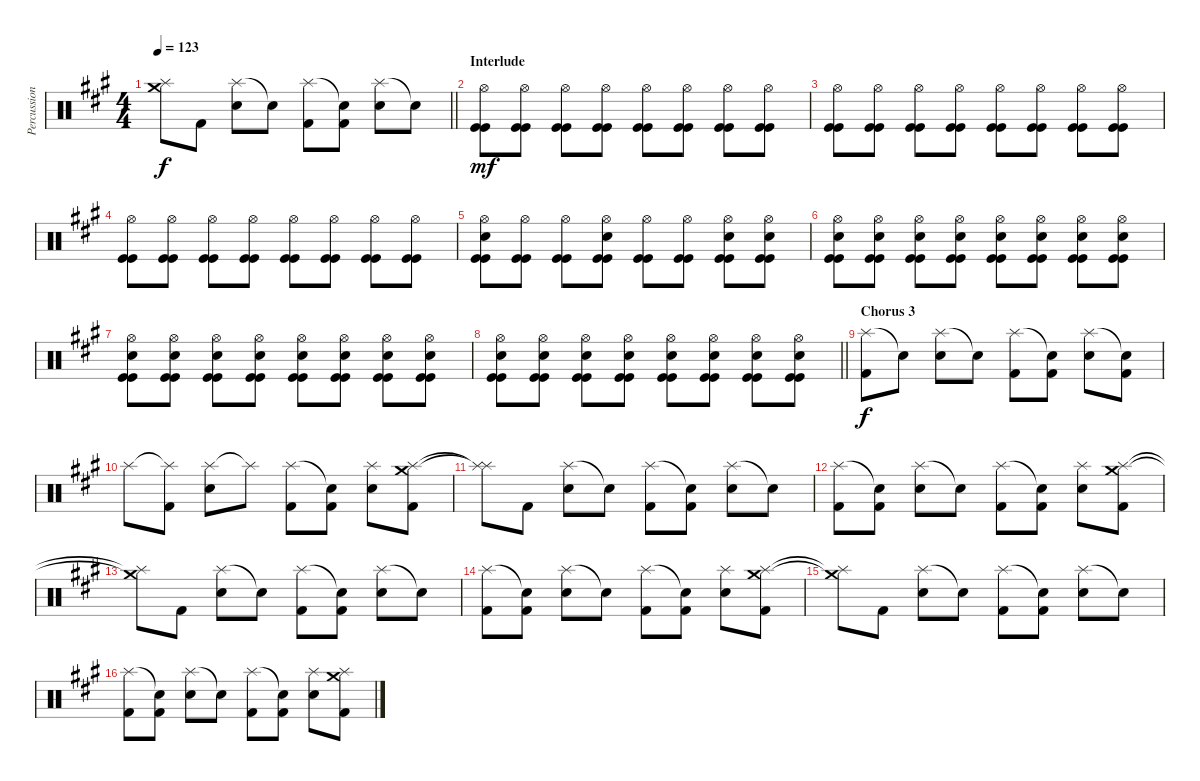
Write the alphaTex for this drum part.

\track ("Percussion" "Percussion") {instrument percussion}
\staff {score}
\articulation defaults
\ts (4 4)
\tempo 123
\clef neutral
\barLineRight lightlight
\ks a
("Crash medium (hit)"{t} "Splash (hit)"{t}).8{dy f} "Kick (hit) 2".8 ("Splash (hit)" "Electric Snare (hit)").8 "Snare (hit)"{t}.8 ("Splash (hit)" "Kick (hit) 2").8 ("Snare (hit)"{t} "Kick (hit) 2").8 ("Splash (hit)" "Electric Snare (hit)").8 "Snare (hit)"{t}.8 |
\section ("" "Interlude")
("Kick (hit)" "Kick (hit)" "Hi-Hat (open)").8{dy mf} ("Kick (hit)" "Kick (hit)" "Hi-Hat (open)").8 ("Kick (hit)" "Kick (hit)" "Hi-Hat (open)").8 ("Kick (hit)" "Kick (hit)" "Hi-Hat (open)").8 ("Kick (hit)" "Kick (hit)" "Hi-Hat (open)").8 ("Kick (hit)" "Kick (hit)" "Hi-Hat (open)").8 ("Kick (hit)" "Kick (hit)" "Hi-Hat (open)").8 ("Kick (hit)" "Kick (hit)" "Hi-Hat (open)").8 |
("Kick (hit)" "Kick (hit)" "Hi-Hat (open)").8 ("Kick (hit)" "Kick (hit)" "Hi-Hat (open)").8 ("Kick (hit)" "Kick (hit)" "Hi-Hat (open)").8 ("Kick (hit)" "Kick (hit)" "Hi-Hat (open)").8 ("Kick (hit)" "Kick (hit)" "Hi-Hat (open)").8 ("Kick (hit)" "Kick (hit)" "Hi-Hat (open)").8 ("Kick (hit)" "Kick (hit)" "Hi-Hat (open)").8 ("Kick (hit)" "Kick (hit)" "Hi-Hat (open)").8 |
("Kick (hit)" "Kick (hit)" "Hi-Hat (open)").8 ("Kick (hit)" "Kick (hit)" "Hi-Hat (open)").8 ("Kick (hit)" "Kick (hit)" "Hi-Hat (open)").8 ("Kick (hit)" "Kick (hit)" "Hi-Hat (open)").8 ("Kick (hit)" "Kick (hit)" "Hi-Hat (open)").8 ("Kick (hit)" "Kick (hit)" "Hi-Hat (open)").8 ("Kick (hit)" "Kick (hit)" "Hi-Hat (open)").8 ("Kick (hit)" "Kick (hit)" "Hi-Hat (open)").8 |
("Kick (hit)" "Kick (hit)" "Hi-Hat (open)" "Electric Snare (hit)").8 ("Kick (hit)" "Kick (hit)" "Hi-Hat (open)").8 ("Kick (hit)" "Kick (hit)" "Hi-Hat (open)").8 ("Kick (hit)" "Kick (hit)" "Hi-Hat (open)" "Electric Snare (hit)").8 ("Kick (hit)" "Kick (hit)" "Hi-Hat (open)").8 ("Kick (hit)" "Kick (hit)" "Hi-Hat (open)").8 ("Kick (hit)" "Kick (hit)" "Hi-Hat (open)" "Electric Snare (hit)").8 ("Kick (hit)" "Kick (hit)" "Hi-Hat (open)" "Electric Snare (hit)").8 |
("Kick (hit)" "Kick (hit)" "Hi-Hat (open)" "Electric Snare (hit)").8 ("Kick (hit)" "Kick (hit)" "Hi-Hat (open)" "Electric Snare (hit)").8 ("Kick (hit)" "Kick (hit)" "Hi-Hat (open)" "Electric Snare (hit)").8 ("Kick (hit)" "Kick (hit)" "Hi-Hat (open)" "Electric Snare (hit)").8 ("Kick (hit)" "Kick (hit)" "Hi-Hat (open)" "Electric Snare (hit)").8 ("Kick (hit)" "Kick (hit)" "Hi-Hat (open)" "Electric Snare (hit)").8 ("Kick (hit)" "Kick (hit)" "Hi-Hat (open)" "Electric Snare (hit)").8 ("Kick (hit)" "Kick (hit)" "Hi-Hat (open)" "Electric Snare (hit)").8 |
("Kick (hit)" "Kick (hit)" "Hi-Hat (open)" "Electric Snare (hit)").8 ("Kick (hit)" "Kick (hit)" "Hi-Hat (open)" "Electric Snare (hit)").8 ("Kick (hit)" "Kick (hit)" "Hi-Hat (open)" "Electric Snare (hit)").8 ("Kick (hit)" "Kick (hit)" "Hi-Hat (open)" "Electric Snare (hit)").8 ("Kick (hit)" "Kick (hit)" "Hi-Hat (open)" "Electric Snare (hit)").8 ("Kick (hit)" "Kick (hit)" "Hi-Hat (open)" "Electric Snare (hit)").8 ("Kick (hit)" "Kick (hit)" "Hi-Hat (open)" "Electric Snare (hit)").8 ("Kick (hit)" "Kick (hit)" "Hi-Hat (open)" "Electric Snare (hit)").8 |
\barLineRight lightlight
("Kick (hit)" "Kick (hit)" "Hi-Hat (open)" "Electric Snare (hit)").8 ("Kick (hit)" "Kick (hit)" "Hi-Hat (open)" "Electric Snare (hit)").8 ("Kick (hit)" "Kick (hit)" "Hi-Hat (open)" "Electric Snare (hit)").8 ("Kick (hit)" "Kick (hit)" "Hi-Hat (open)" "Electric Snare (hit)").8 ("Kick (hit)" "Kick (hit)" "Hi-Hat (open)" "Electric Snare (hit)").8 ("Kick (hit)" "Kick (hit)" "Hi-Hat (open)" "Electric Snare (hit)").8 ("Kick (hit)" "Kick (hit)" "Hi-Hat (open)" "Electric Snare (hit)").8 ("Kick (hit)" "Kick (hit)" "Hi-Hat (open)" "Electric Snare (hit)").8 |
\section ("" "Chorus 3")
("Splash (hit)" "Kick (hit) 2").8{dy f} "Snare (hit)"{t}.8 ("Splash (hit)" "Electric Snare (hit)").8 "Snare (hit)"{t}.8 ("Splash (hit)" "Kick (hit) 2").8 ("Snare (hit)"{t} "Kick (hit) 2").8 ("Splash (hit)" "Electric Snare (hit)").8 ("Snare (hit)"{t} "Kick (hit) 2").8 |
"Splash (hit)".8 ("Splash (hit)"{t} "Kick (hit) 2").8 ("Splash (hit)" "Electric Snare (hit)").8 "Splash (hit)"{t}.8 ("Splash (hit)" "Kick (hit) 2").8 ("Snare (hit)"{t} "Kick (hit) 2").8 ("Splash (hit)" "Electric Snare (hit)").8 ("Crash medium (hit)" "Splash (hit)" "Kick (hit) 2").8 |
("Splash (hit)"{t} "Splash (hit)"{t}).8 "Kick (hit) 2".8 ("Splash (hit)" "Electric Snare (hit)").8 "Snare (hit)"{t}.8 ("Splash (hit)" "Kick (hit) 2").8 ("Snare (hit)"{t} "Kick (hit) 2").8 ("Splash (hit)" "Electric Snare (hit)").8 "Snare (hit)"{t}.8 |
("Splash (hit)" "Kick (hit) 2").8 ("Snare (hit)"{t} "Kick (hit) 2").8 ("Splash (hit)" "Electric Snare (hit)").8 "Snare (hit)"{t}.8 ("Splash (hit)" "Kick (hit) 2").8 ("Snare (hit)"{t} "Kick (hit) 2").8 ("Splash (hit)" "Electric Snare (hit)").8 ("Crash medium (hit)" "Splash (hit)" "Kick (hit) 2").8 |
("Crash medium (hit)"{t} "Splash (hit)"{t}).8 "Kick (hit) 2".8 ("Splash (hit)" "Electric Snare (hit)").8 "Snare (hit)"{t}.8 ("Splash (hit)" "Kick (hit) 2").8 ("Snare (hit)"{t} "Kick (hit) 2").8 ("Splash (hit)" "Electric Snare (hit)").8 "Snare (hit)"{t}.8 |
("Splash (hit)" "Kick (hit) 2").8 ("Snare (hit)"{t} "Kick (hit) 2").8 ("Splash (hit)" "Electric Snare (hit)").8 "Snare (hit)"{t}.8 ("Splash (hit)" "Kick (hit) 2").8 ("Snare (hit)"{t} "Kick (hit) 2").8 ("Splash (hit)" "Electric Snare (hit)").8 ("Crash medium (hit)" "Splash (hit)" "Kick (hit) 2").8 |
("Crash medium (hit)"{t} "Splash (hit)"{t}).8 "Kick (hit) 2".8 ("Splash (hit)" "Electric Snare (hit)").8 "Snare (hit)"{t}.8 ("Splash (hit)" "Kick (hit) 2").8 ("Snare (hit)"{t} "Kick (hit) 2").8 ("Splash (hit)" "Electric Snare (hit)").8 "Snare (hit)"{t}.8 |
("Splash (hit)" "Kick (hit) 2").8 ("Snare (hit)"{t} "Kick (hit) 2").8 ("Splash (hit)" "Electric Snare (hit)").8 "Snare (hit)"{t}.8 ("Splash (hit)" "Kick (hit) 2").8 ("Snare (hit)"{t} "Kick (hit) 2").8 ("Splash (hit)" "Electric Snare (hit)").8 ("Crash medium (hit)" "Splash (hit)" "Kick (hit) 2").8
